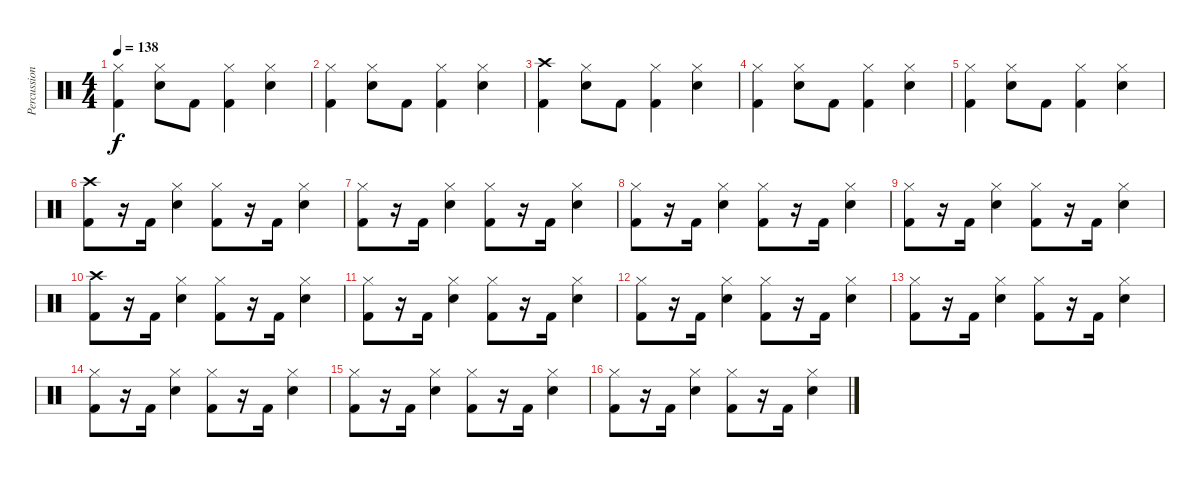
\track ("Percussions" "Percussion") {instrument percussion}
\staff {score}
\articulation defaults
\ts (4 4)
\tempo 138
\clef neutral
\ks c
("Hi-Hat (closed)" "Kick (hit) 2").4{dy f} ("Hi-Hat (closed)" "Snare (hit) 2").8 "Kick (hit) 2".8 ("Hi-Hat (closed)" "Kick (hit) 2").4 ("Hi-Hat (closed)" "Snare (hit) 2").4 |
("Hi-Hat (closed)" "Kick (hit) 2").4 ("Hi-Hat (closed)" "Snare (hit) 2").8 "Kick (hit) 2".8 ("Hi-Hat (closed)" "Kick (hit) 2").4 ("Hi-Hat (closed)" "Snare (hit) 2").4 |
("Crash high (hit)" "Kick (hit) 2").4 ("Hi-Hat (closed)" "Snare (hit) 2").8 "Kick (hit) 2".8 ("Hi-Hat (closed)" "Kick (hit) 2").4 ("Hi-Hat (closed)" "Snare (hit) 2").4 |
("Hi-Hat (closed)" "Kick (hit) 2").4 ("Hi-Hat (closed)" "Snare (hit) 2").8 "Kick (hit) 2".8 ("Hi-Hat (closed)" "Kick (hit) 2").4 ("Hi-Hat (closed)" "Snare (hit) 2").4 |
("Hi-Hat (closed)" "Kick (hit) 2").4 ("Hi-Hat (closed)" "Snare (hit) 2").8 "Kick (hit) 2".8 ("Hi-Hat (closed)" "Kick (hit) 2").4 ("Hi-Hat (closed)" "Snare (hit) 2").4 |
("Crash high (hit)" "Kick (hit) 2").8 r.16 "Kick (hit) 2".16 ("Hi-Hat (closed)" "Snare (hit) 2").4 ("Hi-Hat (closed)" "Kick (hit) 2").8 r.16 "Kick (hit) 2".16 ("Hi-Hat (closed)" "Snare (hit) 2").4 |
("Hi-Hat (closed)" "Kick (hit) 2").8 r.16 "Kick (hit) 2".16 ("Hi-Hat (closed)" "Snare (hit) 2").4 ("Hi-Hat (closed)" "Kick (hit) 2").8 r.16 "Kick (hit) 2".16 ("Hi-Hat (closed)" "Snare (hit) 2").4 |
("Hi-Hat (closed)" "Kick (hit) 2").8 r.16 "Kick (hit) 2".16 ("Hi-Hat (closed)" "Snare (hit) 2").4 ("Hi-Hat (closed)" "Kick (hit) 2").8 r.16 "Kick (hit) 2".16 ("Hi-Hat (closed)" "Snare (hit) 2").4 |
("Hi-Hat (closed)" "Kick (hit) 2").8 r.16 "Kick (hit) 2".16 ("Hi-Hat (closed)" "Snare (hit) 2").4 ("Hi-Hat (closed)" "Kick (hit) 2").8 r.16 "Kick (hit) 2".16 ("Hi-Hat (closed)" "Snare (hit) 2").4 |
("Crash high (hit)" "Kick (hit) 2").8 r.16 "Kick (hit) 2".16 ("Hi-Hat (closed)" "Snare (hit) 2").4 ("Hi-Hat (closed)" "Kick (hit) 2").8 r.16 "Kick (hit) 2".16 ("Hi-Hat (closed)" "Snare (hit) 2").4 |
("Hi-Hat (closed)" "Kick (hit) 2").8 r.16 "Kick (hit) 2".16 ("Hi-Hat (closed)" "Snare (hit) 2").4 ("Hi-Hat (closed)" "Kick (hit) 2").8 r.16 "Kick (hit) 2".16 ("Hi-Hat (closed)" "Snare (hit) 2").4 |
("Hi-Hat (closed)" "Kick (hit) 2").8 r.16 "Kick (hit) 2".16 ("Hi-Hat (closed)" "Snare (hit) 2").4 ("Hi-Hat (closed)" "Kick (hit) 2").8 r.16 "Kick (hit) 2".16 ("Hi-Hat (closed)" "Snare (hit) 2").4 |
("Hi-Hat (closed)" "Kick (hit) 2").8 r.16 "Kick (hit) 2".16 ("Hi-Hat (closed)" "Snare (hit) 2").4 ("Hi-Hat (closed)" "Kick (hit) 2").8 r.16 "Kick (hit) 2".16 ("Hi-Hat (closed)" "Snare (hit) 2").4 |
("Hi-Hat (closed)" "Kick (hit) 2").8 r.16 "Kick (hit) 2".16 ("Hi-Hat (closed)" "Snare (hit) 2").4 ("Hi-Hat (closed)" "Kick (hit) 2").8 r.16 "Kick (hit) 2".16 ("Hi-Hat (closed)" "Snare (hit) 2").4 |
("Hi-Hat (closed)" "Kick (hit) 2").8 r.16 "Kick (hit) 2".16 ("Hi-Hat (closed)" "Snare (hit) 2").4 ("Hi-Hat (closed)" "Kick (hit) 2").8 r.16 "Kick (hit) 2".16 ("Hi-Hat (closed)" "Snare (hit) 2").4 |
("Hi-Hat (closed)" "Kick (hit) 2").8 r.16 "Kick (hit) 2".16 ("Hi-Hat (closed)" "Snare (hit) 2").4 ("Hi-Hat (closed)" "Kick (hit) 2").8 r.16 "Kick (hit) 2".16 ("Hi-Hat (closed)" "Snare (hit) 2").4
